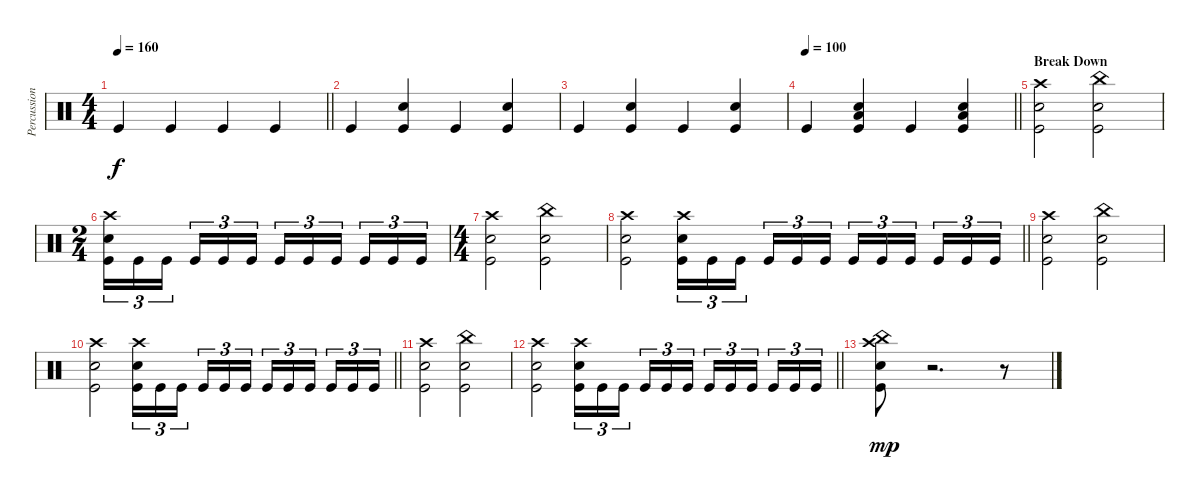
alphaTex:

\track ("Percussion" "Percussion") {instrument percussion}
\staff {score}
\articulation defaults
\ts (4 4)
\tempo 160
\clef neutral
\barLineRight lightlight
\ks c "Kick (hit)".4{dy f} "Kick (hit)".4 "Kick (hit)".4 "Kick (hit)".4
|
"Kick (hit)".4 ("Electric Snare (hit)" "Kick (hit)").4 "Kick (hit)".4 ("Electric Snare (hit)" "Kick (hit)").4 |
"Kick (hit)".4 ("Electric Snare (hit)" "Kick (hit)").4 "Kick (hit)".4 ("Electric Snare (hit)" "Kick (hit)").4 |
\tempo 100
\barLineRight lightlight "Kick (hit)".4
("Low Tom (hit)" "Electric Snare (hit)" "Kick (hit)").4 "Kick (hit)".4 ("Low Tom (hit)" "Electric Snare (hit)" "Kick (hit)").4 |
\section ("" "Break Down")
("Crash high (hit)" "Electric Snare (hit)" "Kick (hit)").2 ("China (hit)" "Electric Snare (hit)" "Kick (hit)").2 |
\ts (2 4)
("Crash high (hit)" "Electric Snare (hit)" "Kick (hit)").16{tu (3 2)} "Kick (hit)".16{tu (3 2)} "Kick (hit)".16{tu (3 2) beam splitsecondary} "Kick (hit)".16{tu (3 2)} "Kick (hit)".16{tu (3 2)} "Kick (hit)".16{tu (3 2)} "Kick (hit)".16{tu (3 2)} "Kick (hit)".16{tu (3 2)} "Kick (hit)".16{tu (3 2) beam splitsecondary} "Kick (hit)".16{tu (3 2)} "Kick (hit)".16{tu (3 2)} "Kick (hit)".16{tu (3 2)} |
\ts (4 4)
("Crash high (hit)" "Electric Snare (hit)" "Kick (hit)").2 ("China (hit)" "Electric Snare (hit)" "Kick (hit)").2 |
\barLineRight lightlight
("Crash high (hit)" "Electric Snare (hit)" "Kick (hit)").2 ("Crash high (hit)" "Electric Snare (hit)" "Kick (hit)").16{tu (3 2)} "Kick (hit)".16{tu (3 2)} "Kick (hit)".16{tu (3 2) beam splitsecondary} "Kick (hit)".16{tu (3 2)} "Kick (hit)".16{tu (3 2)} "Kick (hit)".16{tu (3 2)} "Kick (hit)".16{tu (3 2)} "Kick (hit)".16{tu (3 2)} "Kick (hit)".16{tu (3 2) beam splitsecondary} "Kick (hit)".16{tu (3 2)} "Kick (hit)".16{tu (3 2)} "Kick (hit)".16{tu (3 2)} |
("Crash high (hit)" "Electric Snare (hit)" "Kick (hit)").2 ("China (hit)" "Electric Snare (hit)" "Kick (hit)").2 |
\barLineRight lightlight
("Crash high (hit)" "Electric Snare (hit)" "Kick (hit)").2 ("Crash high (hit)" "Electric Snare (hit)" "Kick (hit)").16{tu (3 2)} "Kick (hit)".16{tu (3 2)} "Kick (hit)".16{tu (3 2) beam splitsecondary} "Kick (hit)".16{tu (3 2)} "Kick (hit)".16{tu (3 2)} "Kick (hit)".16{tu (3 2)} "Kick (hit)".16{tu (3 2)} "Kick (hit)".16{tu (3 2)} "Kick (hit)".16{tu (3 2) beam splitsecondary} "Kick (hit)".16{tu (3 2)} "Kick (hit)".16{tu (3 2)} "Kick (hit)".16{tu (3 2)} |
("Crash high (hit)" "Electric Snare (hit)" "Kick (hit)").2 ("China (hit)" "Electric Snare (hit)" "Kick (hit)").2 |
\barLineRight lightlight
("Crash high (hit)" "Electric Snare (hit)" "Kick (hit)").2 ("Crash high (hit)" "Electric Snare (hit)" "Kick (hit)").16{tu (3 2)} "Kick (hit)".16{tu (3 2)} "Kick (hit)".16{tu (3 2) beam splitsecondary} "Kick (hit)".16{tu (3 2)} "Kick (hit)".16{tu (3 2)} "Kick (hit)".16{tu (3 2)} "Kick (hit)".16{tu (3 2)} "Kick (hit)".16{tu (3 2)} "Kick (hit)".16{tu (3 2) beam splitsecondary} "Kick (hit)".16{tu (3 2)} "Kick (hit)".16{tu (3 2)} "Kick (hit)".16{tu (3 2)} |
("China (hit)" "Crash high (hit)" "Electric Snare (hit)" "Kick (hit)").8{dy mp} r.2{d} r.8
